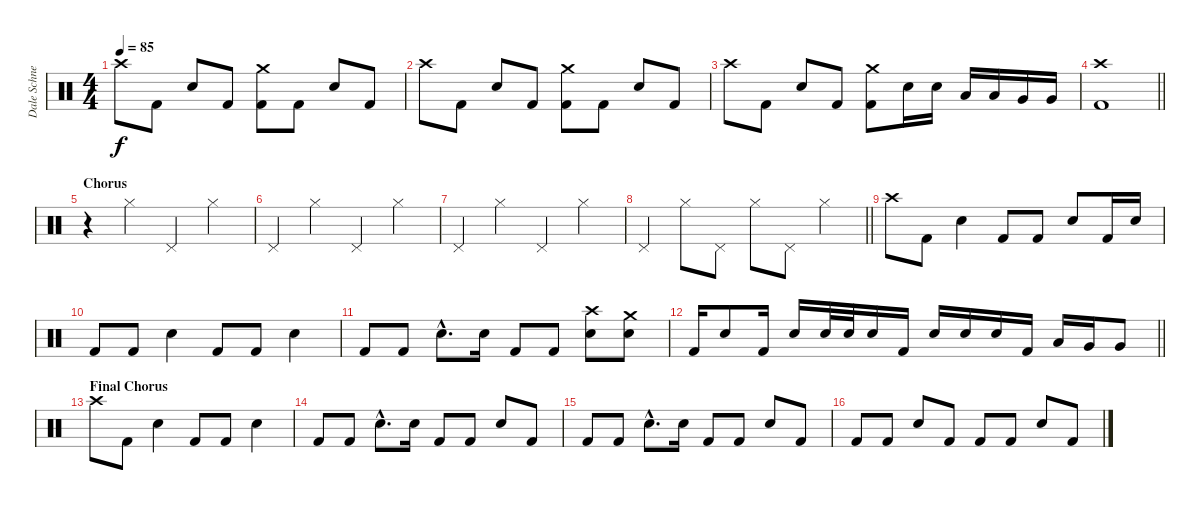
\track ("Dale Schnettler (Drums)" "Dale Schne") {instrument percussion}
\staff {score}
\articulation defaults
\ts (4 4)
\tempo 85
\clef neutral
\ks c "Crash high (hit)".8{dy f} "Kick (hit) 2".8 "Electric Snare (hit)".8 "Kick (hit) 2".8
("Crash medium (hit)" "Kick (hit) 2").8 "Kick (hit) 2".8 "Electric Snare (hit)".8 "Kick (hit) 2".8 |
"Crash high (hit)".8 "Kick (hit) 2".8 "Electric Snare (hit)".8 "Kick (hit) 2".8 ("Crash medium (hit)" "Kick (hit) 2").8 "Kick (hit) 2".8 "Electric Snare (hit)".8 "Kick (hit) 2".8 |
"Crash high (hit)".8 "Kick (hit) 2".8 "Electric Snare (hit)".8 "Kick (hit) 2".8 ("Crash medium (hit)" "Kick (hit) 2").8 "Electric Snare (hit)".16 "Electric Snare (hit)".16 "Low Tom (hit)".16 "Low Tom (hit)".16 "Very Low Tom (hit)".16 "Very Low Tom (hit)".16 |
\barLineRight lightlight
("Crash high (hit)" "Kick (hit) 2").1 |
\section ("" "Chorus")
r.4 "Hi-Hat (closed)".4 "Pedal Hi-Hat (hit)".4 "Hi-Hat (closed)".4 |
"Pedal Hi-Hat (hit)".4 "Hi-Hat (closed)".4 "Pedal Hi-Hat (hit)".4 "Hi-Hat (closed)".4 |
"Pedal Hi-Hat (hit)".4 "Hi-Hat (closed)".4 "Pedal Hi-Hat (hit)".4 "Hi-Hat (closed)".4 |
\barLineRight lightlight "Pedal Hi-Hat (hit)".4 "Hi-Hat (closed)".8 "Pedal Hi-Hat (hit)".8 "Hi-Hat (closed)".8 "Pedal Hi-Hat (hit)".8 "Hi-Hat (closed)".4
|
"Crash high (hit)".8 "Kick (hit) 2".8 "Electric Snare (hit)".4 "Kick (hit) 2".8 "Kick (hit) 2".8 "Electric Snare (hit)".8 "Kick (hit) 2".16 "Electric Snare (hit)".16 |
"Kick (hit) 2".8 "Kick (hit) 2".8 "Electric Snare (hit)".4 "Kick (hit) 2".8 "Kick (hit) 2".8 "Electric Snare (hit)".4 |
"Kick (hit) 2".8 "Kick (hit) 2".8 "Electric Snare (hit)"{hac}.8{d} "Electric Snare (hit)".16 "Kick (hit) 2".8 "Kick (hit) 2".8 ("Crash high (hit)" "Electric Snare (hit)").8 ("Crash medium (hit)" "Electric Snare (hit)").8 |
\barLineRight lightlight "Kick (hit) 2".16 "Electric Snare (hit)".8 "Kick (hit) 2".16 "Electric Snare (hit)".16 "Electric Snare (hit)".32 "Electric Snare (hit)".32 "Electric Snare (hit)".16 "Kick (hit) 2".16 "Electric Snare (hit)".16 "Electric Snare (hit)".16 "Electric Snare (hit)".16 "Kick (hit) 2".16 "Low Tom (hit)".16 "Very Low Tom (hit)".16 "Very Low Tom (hit)".8
|
\section ("" "Final Chorus")
"Crash high (hit)".8 "Kick (hit) 2".8 "Electric Snare (hit)".4 "Kick (hit) 2".8 "Kick (hit) 2".8 "Electric Snare (hit)".4 |
"Kick (hit) 2".8 "Kick (hit) 2".8 "Electric Snare (hit)"{hac}.8{d} "Electric Snare (hit)".16 "Kick (hit) 2".8 "Kick (hit) 2".8 "Electric Snare (hit)".8 "Kick (hit) 2".8 |
"Kick (hit) 2".8 "Kick (hit) 2".8 "Electric Snare (hit)"{hac}.8{d} "Electric Snare (hit)".16 "Kick (hit) 2".8 "Kick (hit) 2".8 "Electric Snare (hit)".8 "Kick (hit) 2".8 |
"Kick (hit) 2".8 "Kick (hit) 2".8 "Electric Snare (hit)".8 "Kick (hit) 2".8 "Kick (hit) 2".8 "Kick (hit) 2".8 "Electric Snare (hit)".8 "Kick (hit) 2".8
